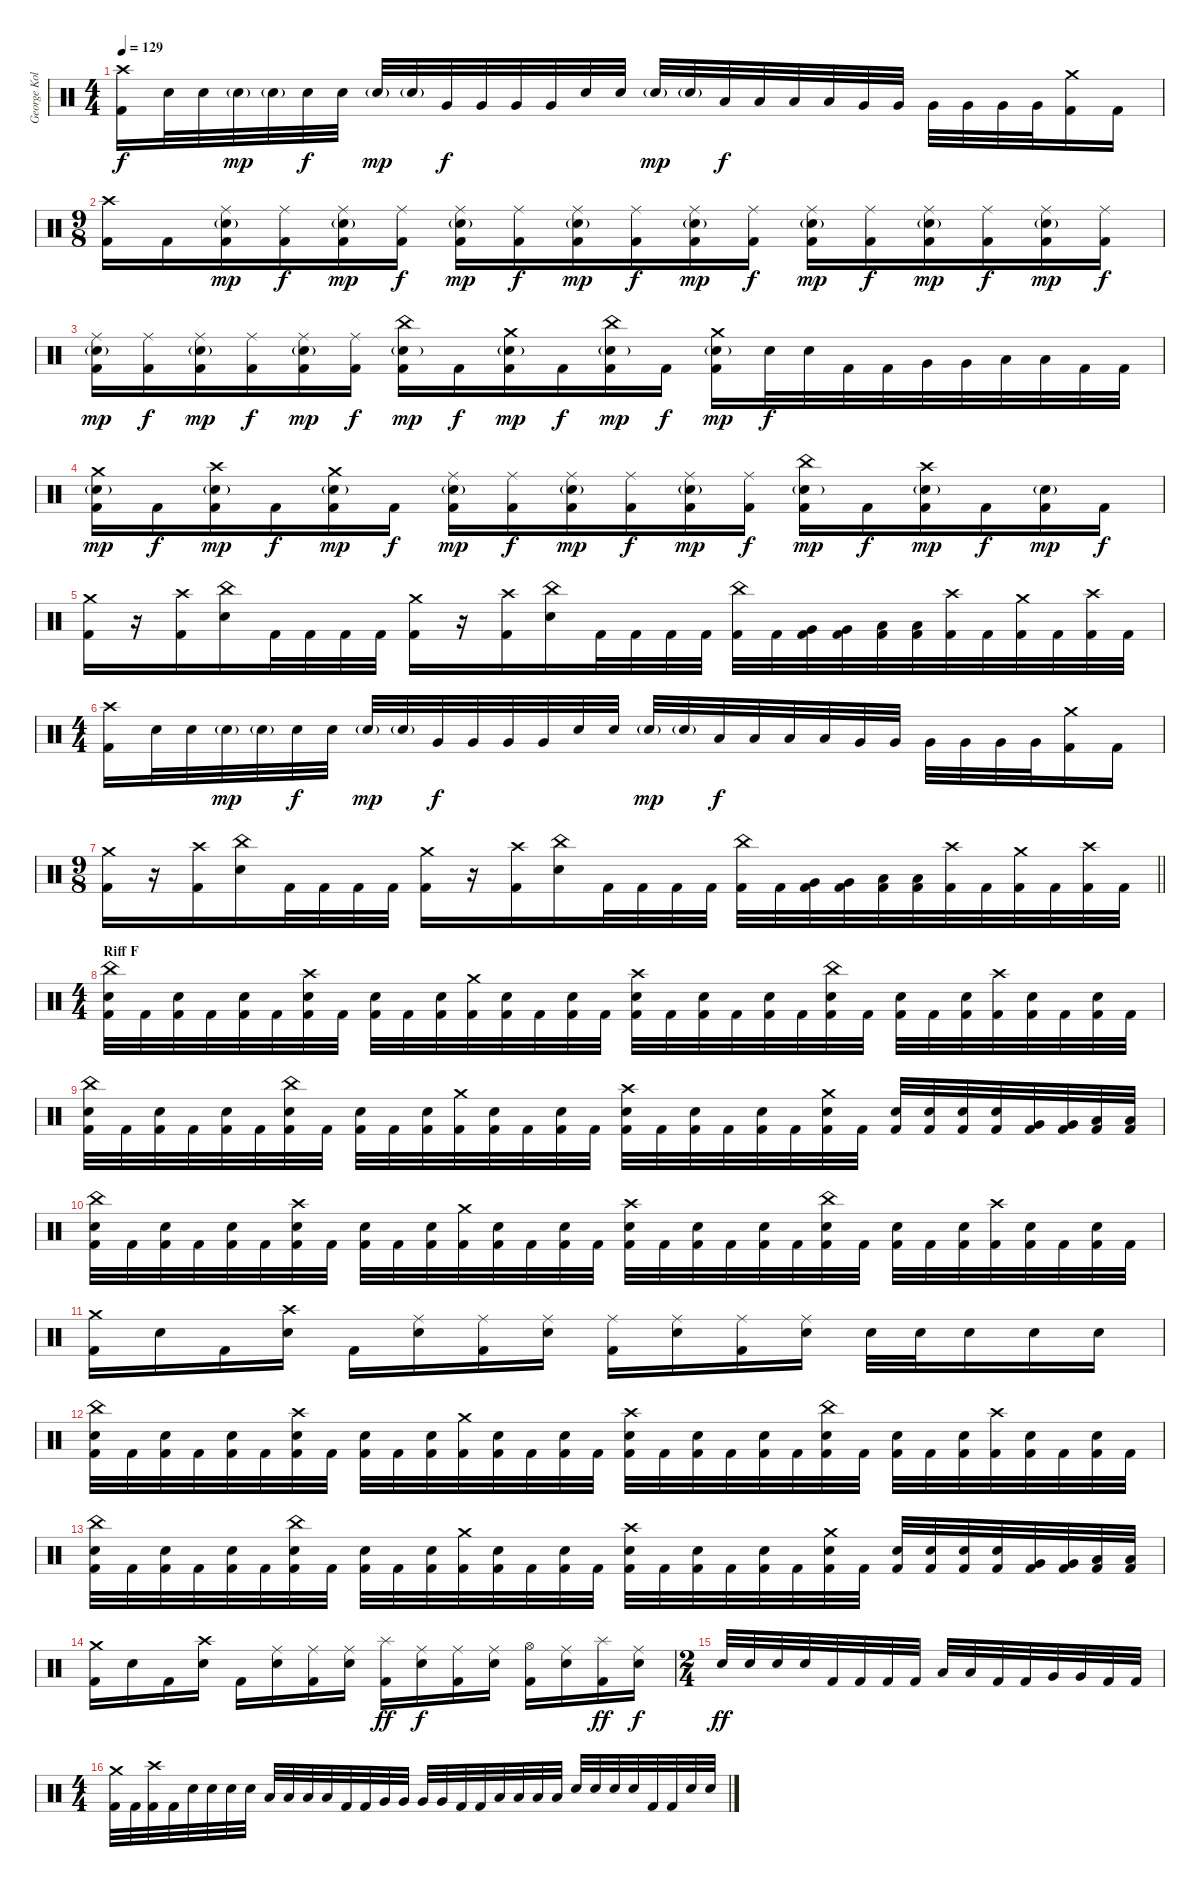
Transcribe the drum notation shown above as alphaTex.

\track ("George Kollias" "George Kol") {instrument percussion}
\staff {score}
\articulation defaults
\ts (4 4)
\tempo 129
\clef neutral
\ks c
("Crash high (hit)" "Kick (hit) 2").16{dy f} "Electric Snare (hit)".32 "Electric Snare (hit)".32 "Electric Snare (hit)"{g}.32{dy mp} "Electric Snare (hit)"{g}.32 "Electric Snare (hit)".32{dy f} "Electric Snare (hit)".32 "Electric Snare (hit)"{g}.32{dy mp} "Electric Snare (hit)"{g}.32 "Very Low Tom (hit)".32{dy f} "Very Low Tom (hit)".32 "Very Low Tom (hit)".32 "Very Low Tom (hit)".32 "Electric Snare (hit)".32 "Electric Snare (hit)".32 "Electric Snare (hit)"{g}.32{dy mp} "Electric Snare (hit)"{g}.32 "Low Tom (hit)".32{dy f} "Low Tom (hit)".32 "Low Tom (hit)".32 "Low Tom (hit)".32 "Very Low Tom (hit)".32 "Very Low Tom (hit)".32 "Very Low Tom (hit)".32 "Very Low Tom (hit)".32 "Very Low Tom (hit)".32 "Very Low Tom (hit)".32 ("Crash medium (hit)" "Kick (hit) 2").16 "Kick (hit) 2".16 |
\ts (9 8)
("Crash high (hit)" "Kick (hit) 2").16 "Kick (hit) 2".16 ("Ride (middle)" "Electric Snare (hit)"{g} "Kick (hit) 2").16{dy mp} ("Ride (middle)" "Kick (hit) 2").16{dy f} ("Ride (middle)" "Electric Snare (hit)"{g} "Kick (hit) 2").16{dy mp} ("Ride (middle)" "Kick (hit) 2").16{dy f} ("Ride (middle)" "Electric Snare (hit)"{g} "Kick (hit) 2").16{dy mp} ("Ride (middle)" "Kick (hit) 2").16{dy f} ("Ride (middle)" "Electric Snare (hit)"{g} "Kick (hit) 2").16{dy mp} ("Ride (middle)" "Kick (hit) 2").16{dy f} ("Ride (middle)" "Electric Snare (hit)"{g} "Kick (hit) 2").16{dy mp} ("Ride (middle)" "Kick (hit) 2").16{dy f} ("Ride (middle)" "Electric Snare (hit)"{g} "Kick (hit) 2").16{dy mp} ("Ride (middle)" "Kick (hit) 2").16{dy f} ("Ride (middle)" "Electric Snare (hit)"{g} "Kick (hit) 2").16{dy mp} ("Ride (middle)" "Kick (hit) 2").16{dy f} ("Ride (middle)" "Electric Snare (hit)"{g} "Kick (hit) 2").16{dy mp} ("Ride (middle)" "Kick (hit) 2").16{dy f} |
("Ride (middle)" "Electric Snare (hit)"{g} "Kick (hit) 2").16{dy mp} ("Ride (middle)" "Kick (hit) 2").16{dy f} ("Ride (middle)" "Electric Snare (hit)"{g} "Kick (hit) 2").16{dy mp} ("Ride (middle)" "Kick (hit) 2").16{dy f} ("Ride (middle)" "Electric Snare (hit)"{g} "Kick (hit) 2").16{dy mp} ("Ride (middle)" "Kick (hit) 2").16{dy f} ("China (hit)" "Electric Snare (hit)"{g} "Kick (hit) 2").16{dy mp} "Kick (hit) 2".16{dy f} ("Crash medium (hit)" "Electric Snare (hit)"{g} "Kick (hit) 2").16{dy mp} "Kick (hit) 2".16{dy f} ("China (hit)" "Electric Snare (hit)"{g} "Kick (hit) 2").16{dy mp} "Kick (hit) 2".16{dy f} ("Crash medium (hit)" "Electric Snare (hit)"{g} "Kick (hit) 2").16{dy mp} "Electric Snare (hit)".32{dy f} "Electric Snare (hit)".32 "Kick (hit) 2".32 "Kick (hit) 2".32 "Very Low Tom (hit)".32 "Very Low Tom (hit)".32 "Low Floor Tom (hit)".32 "Low Floor Tom (hit)".32 "Kick (hit) 2".32 "Kick (hit) 2".32 |
("Crash medium (hit)" "Electric Snare (hit)"{g} "Kick (hit) 2").16{dy mp} "Kick (hit) 2".16{dy f} ("Crash high (hit)" "Electric Snare (hit)"{g} "Kick (hit) 2").16{dy mp} "Kick (hit) 2".16{dy f} ("Crash medium (hit)" "Electric Snare (hit)"{g} "Kick (hit) 2").16{dy mp} "Kick (hit) 2".16{dy f} ("Ride (middle)" "Electric Snare (hit)"{g} "Kick (hit) 2").16{dy mp} ("Ride (middle)" "Kick (hit) 2").16{dy f} ("Ride (middle)" "Electric Snare (hit)"{g} "Kick (hit) 2").16{dy mp} ("Ride (middle)" "Kick (hit) 2").16{dy f} ("Ride (middle)" "Electric Snare (hit)"{g} "Kick (hit) 2").16{dy mp} ("Ride (middle)" "Kick (hit) 2").16{dy f} ("China (hit)" "Electric Snare (hit)"{g} "Kick (hit) 2").16{dy mp} "Kick (hit) 2".16{dy f} ("Crash high (hit)" "Electric Snare (hit)"{g} "Kick (hit) 2").16{dy mp} "Kick (hit) 2".16{dy f} ("Electric Snare (hit)"{g} "Kick (hit) 2").16{dy mp} "Kick (hit) 2".16{dy f} |
("Crash medium (hit)" "Kick (hit) 2").16 r.16 ("Crash high (hit)" "Kick (hit) 2").16 ("China (hit)" "Electric Snare (hit)").16 "Kick (hit) 2".32 "Kick (hit) 2".32 "Kick (hit) 2".32 "Kick (hit) 2".32 ("Crash medium (hit)" "Kick (hit) 2").16 r.16 ("Crash high (hit)" "Kick (hit) 2").16 ("China (hit)" "Electric Snare (hit)").16 "Kick (hit) 2".32 "Kick (hit) 2".32 "Kick (hit) 2".32 "Kick (hit) 2".32 ("China (hit)" "Kick (hit) 2").32 "Kick (hit) 2".32 ("Very Low Tom (hit)" "Kick (hit) 2").32 ("Very Low Tom (hit)" "Kick (hit) 2").32 ("Low Floor Tom (hit)" "Kick (hit) 2").32 ("Low Floor Tom (hit)" "Kick (hit) 2").32 ("Crash high (hit)" "Kick (hit) 2").32 "Kick (hit) 2".32 ("Crash medium (hit)" "Kick (hit) 2").32 "Kick (hit) 2".32 ("Crash high (hit)" "Kick (hit) 2").32 "Kick (hit) 2".32 |
\ts (4 4)
("Crash high (hit)" "Kick (hit) 2").16 "Electric Snare (hit)".32 "Electric Snare (hit)".32 "Electric Snare (hit)"{g}.32{dy mp} "Electric Snare (hit)"{g}.32 "Electric Snare (hit)".32{dy f} "Electric Snare (hit)".32 "Electric Snare (hit)"{g}.32{dy mp} "Electric Snare (hit)"{g}.32 "Very Low Tom (hit)".32{dy f} "Very Low Tom (hit)".32 "Very Low Tom (hit)".32 "Very Low Tom (hit)".32 "Electric Snare (hit)".32 "Electric Snare (hit)".32 "Electric Snare (hit)"{g}.32{dy mp} "Electric Snare (hit)"{g}.32 "Low Tom (hit)".32{dy f} "Low Tom (hit)".32 "Low Tom (hit)".32 "Low Tom (hit)".32 "Very Low Tom (hit)".32 "Very Low Tom (hit)".32 "Very Low Tom (hit)".32 "Very Low Tom (hit)".32 "Very Low Tom (hit)".32 "Very Low Tom (hit)".32 ("Crash medium (hit)" "Kick (hit) 2").16 "Kick (hit) 2".16 |
\ts (9 8)
\barLineRight lightlight
("Crash medium (hit)" "Kick (hit) 2").16 r.16 ("Crash high (hit)" "Kick (hit) 2").16 ("China (hit)" "Electric Snare (hit)").16 "Kick (hit) 2".32 "Kick (hit) 2".32 "Kick (hit) 2".32 "Kick (hit) 2".32 ("Crash medium (hit)" "Kick (hit) 2").16 r.16 ("Crash high (hit)" "Kick (hit) 2").16 ("China (hit)" "Electric Snare (hit)").16 "Kick (hit) 2".32 "Kick (hit) 2".32 "Kick (hit) 2".32 "Kick (hit) 2".32 ("China (hit)" "Kick (hit) 2").32 "Kick (hit) 2".32 ("Very Low Tom (hit)" "Kick (hit) 2").32 ("Very Low Tom (hit)" "Kick (hit) 2").32 ("Low Floor Tom (hit)" "Kick (hit) 2").32 ("Low Floor Tom (hit)" "Kick (hit) 2").32 ("Crash high (hit)" "Kick (hit) 2").32 "Kick (hit) 2".32 ("Crash medium (hit)" "Kick (hit) 2").32 "Kick (hit) 2".32 ("Crash high (hit)" "Kick (hit) 2").32 "Kick (hit) 2".32 |
\ts (4 4)
\section ("" "Riff F")
("China (hit)" "Electric Snare (hit)" "Kick (hit) 2").32 "Kick (hit) 2".32 ("Electric Snare (hit)" "Kick (hit) 2").32 "Kick (hit) 2".32 ("Electric Snare (hit)" "Kick (hit) 2").32 "Kick (hit) 2".32 ("Crash high (hit)" "Electric Snare (hit)" "Kick (hit) 2").32 "Kick (hit) 2".32 ("Electric Snare (hit)" "Kick (hit) 2").32 "Kick (hit) 2".32 ("Electric Snare (hit)" "Kick (hit) 2").32 ("Crash medium (hit)" "Kick (hit) 2").32 ("Electric Snare (hit)" "Kick (hit) 2").32 "Kick (hit) 2".32 ("Electric Snare (hit)" "Kick (hit) 2").32 "Kick (hit) 2".32 ("Crash high (hit)" "Electric Snare (hit)" "Kick (hit) 2").32 "Kick (hit) 2".32 ("Electric Snare (hit)" "Kick (hit) 2").32 "Kick (hit) 2".32 ("Electric Snare (hit)" "Kick (hit) 2").32 "Kick (hit) 2".32 ("China (hit)" "Electric Snare (hit)" "Kick (hit) 2").32 "Kick (hit) 2".32 ("Electric Snare (hit)" "Kick (hit) 2").32 "Kick (hit) 2".32 ("Electric Snare (hit)" "Kick (hit) 2").32 ("Crash high (hit)" "Kick (hit) 2").32 ("Electric Snare (hit)" "Kick (hit) 2").32 "Kick (hit) 2".32 ("Electric Snare (hit)" "Kick (hit) 2").32 "Kick (hit) 2".32 |
("China (hit)" "Electric Snare (hit)" "Kick (hit) 2").32 "Kick (hit) 2".32 ("Electric Snare (hit)" "Kick (hit) 2").32 "Kick (hit) 2".32 ("Electric Snare (hit)" "Kick (hit) 2").32 "Kick (hit) 2".32 ("China (hit)" "Electric Snare (hit)" "Kick (hit) 2").32 "Kick (hit) 2".32 ("Electric Snare (hit)" "Kick (hit) 2").32 "Kick (hit) 2".32 ("Electric Snare (hit)" "Kick (hit) 2").32 ("Crash medium (hit)" "Kick (hit) 2").32 ("Electric Snare (hit)" "Kick (hit) 2").32 "Kick (hit) 2".32 ("Electric Snare (hit)" "Kick (hit) 2").32 "Kick (hit) 2".32 ("Crash high (hit)" "Electric Snare (hit)" "Kick (hit) 2").32 "Kick (hit) 2".32 ("Electric Snare (hit)" "Kick (hit) 2").32 "Kick (hit) 2".32 ("Electric Snare (hit)" "Kick (hit) 2").32 "Kick (hit) 2".32 ("Crash medium (hit)" "Electric Snare (hit)" "Kick (hit) 2").32 "Kick (hit) 2".32 ("Electric Snare (hit)" "Kick (hit) 2").32 ("Electric Snare (hit)" "Kick (hit) 2").32 ("Electric Snare (hit)" "Kick (hit) 2").32 ("Electric Snare (hit)" "Kick (hit) 2").32 ("Very Low Tom (hit)" "Kick (hit) 2").32 ("Very Low Tom (hit)" "Kick (hit) 2").32 ("Low Floor Tom (hit)" "Kick (hit) 2").32 ("Low Floor Tom (hit)" "Kick (hit) 2").32 |
("China (hit)" "Electric Snare (hit)" "Kick (hit) 2").32 "Kick (hit) 2".32 ("Electric Snare (hit)" "Kick (hit) 2").32 "Kick (hit) 2".32 ("Electric Snare (hit)" "Kick (hit) 2").32 "Kick (hit) 2".32 ("Crash high (hit)" "Electric Snare (hit)" "Kick (hit) 2").32 "Kick (hit) 2".32 ("Electric Snare (hit)" "Kick (hit) 2").32 "Kick (hit) 2".32 ("Electric Snare (hit)" "Kick (hit) 2").32 ("Crash medium (hit)" "Kick (hit) 2").32 ("Electric Snare (hit)" "Kick (hit) 2").32 "Kick (hit) 2".32 ("Electric Snare (hit)" "Kick (hit) 2").32 "Kick (hit) 2".32 ("Crash high (hit)" "Electric Snare (hit)" "Kick (hit) 2").32 "Kick (hit) 2".32 ("Electric Snare (hit)" "Kick (hit) 2").32 "Kick (hit) 2".32 ("Electric Snare (hit)" "Kick (hit) 2").32 "Kick (hit) 2".32 ("China (hit)" "Electric Snare (hit)" "Kick (hit) 2").32 "Kick (hit) 2".32 ("Electric Snare (hit)" "Kick (hit) 2").32 "Kick (hit) 2".32 ("Electric Snare (hit)" "Kick (hit) 2").32 ("Crash high (hit)" "Kick (hit) 2").32 ("Electric Snare (hit)" "Kick (hit) 2").32 "Kick (hit) 2".32 ("Electric Snare (hit)" "Kick (hit) 2").32 "Kick (hit) 2".32 |
("Crash medium (hit)" "Kick (hit) 2").16 "Electric Snare (hit)".16 "Kick (hit) 2".16 ("Crash high (hit)" "Electric Snare (hit)").16 "Kick (hit) 2".16 ("Ride (middle)" "Electric Snare (hit)").16 ("Ride (middle)" "Kick (hit) 2").16 ("Ride (middle)" "Electric Snare (hit)").16 ("Ride (middle)" "Kick (hit) 2").16 ("Ride (middle)" "Electric Snare (hit)").16 ("Ride (middle)" "Kick (hit) 2").16 ("Ride (middle)" "Electric Snare (hit)").16 "Electric Snare (hit)".32 "Electric Snare (hit)".32 "Electric Snare (hit)".16 "Electric Snare (hit)".16 "Electric Snare (hit)".16 |
("China (hit)" "Electric Snare (hit)" "Kick (hit) 2").32 "Kick (hit) 2".32 ("Electric Snare (hit)" "Kick (hit) 2").32 "Kick (hit) 2".32 ("Electric Snare (hit)" "Kick (hit) 2").32 "Kick (hit) 2".32 ("Crash high (hit)" "Electric Snare (hit)" "Kick (hit) 2").32 "Kick (hit) 2".32 ("Electric Snare (hit)" "Kick (hit) 2").32 "Kick (hit) 2".32 ("Electric Snare (hit)" "Kick (hit) 2").32 ("Crash medium (hit)" "Kick (hit) 2").32 ("Electric Snare (hit)" "Kick (hit) 2").32 "Kick (hit) 2".32 ("Electric Snare (hit)" "Kick (hit) 2").32 "Kick (hit) 2".32 ("Crash high (hit)" "Electric Snare (hit)" "Kick (hit) 2").32 "Kick (hit) 2".32 ("Electric Snare (hit)" "Kick (hit) 2").32 "Kick (hit) 2".32 ("Electric Snare (hit)" "Kick (hit) 2").32 "Kick (hit) 2".32 ("China (hit)" "Electric Snare (hit)" "Kick (hit) 2").32 "Kick (hit) 2".32 ("Electric Snare (hit)" "Kick (hit) 2").32 "Kick (hit) 2".32 ("Electric Snare (hit)" "Kick (hit) 2").32 ("Crash high (hit)" "Kick (hit) 2").32 ("Electric Snare (hit)" "Kick (hit) 2").32 "Kick (hit) 2".32 ("Electric Snare (hit)" "Kick (hit) 2").32 "Kick (hit) 2".32 |
("China (hit)" "Electric Snare (hit)" "Kick (hit) 2").32 "Kick (hit) 2".32 ("Electric Snare (hit)" "Kick (hit) 2").32 "Kick (hit) 2".32 ("Electric Snare (hit)" "Kick (hit) 2").32 "Kick (hit) 2".32 ("China (hit)" "Electric Snare (hit)" "Kick (hit) 2").32 "Kick (hit) 2".32 ("Electric Snare (hit)" "Kick (hit) 2").32 "Kick (hit) 2".32 ("Electric Snare (hit)" "Kick (hit) 2").32 ("Crash medium (hit)" "Kick (hit) 2").32 ("Electric Snare (hit)" "Kick (hit) 2").32 "Kick (hit) 2".32 ("Electric Snare (hit)" "Kick (hit) 2").32 "Kick (hit) 2".32 ("Crash high (hit)" "Electric Snare (hit)" "Kick (hit) 2").32 "Kick (hit) 2".32 ("Electric Snare (hit)" "Kick (hit) 2").32 "Kick (hit) 2".32 ("Electric Snare (hit)" "Kick (hit) 2").32 "Kick (hit) 2".32 ("Crash medium (hit)" "Electric Snare (hit)" "Kick (hit) 2").32 "Kick (hit) 2".32 ("Electric Snare (hit)" "Kick (hit) 2").32 ("Electric Snare (hit)" "Kick (hit) 2").32 ("Electric Snare (hit)" "Kick (hit) 2").32 ("Electric Snare (hit)" "Kick (hit) 2").32 ("Very Low Tom (hit)" "Kick (hit) 2").32 ("Very Low Tom (hit)" "Kick (hit) 2").32 ("Low Floor Tom (hit)" "Kick (hit) 2").32 ("Low Floor Tom (hit)" "Kick (hit) 2").32 |
("Crash medium (hit)" "Kick (hit) 2").16 "Electric Snare (hit)".16 "Kick (hit) 2".16 ("Crash high (hit)" "Electric Snare (hit)").16 "Kick (hit) 2".16 ("Ride (middle)" "Electric Snare (hit)").16 ("Ride (middle)" "Kick (hit) 2").16 ("Ride (middle)" "Electric Snare (hit)").16 ("Splash (hit)" "Kick (hit) 2").16{dy ff} ("Ride (middle)" "Electric Snare (hit)").16{dy f} ("Ride (middle)" "Kick (hit) 2").16 ("Ride (middle)" "Electric Snare (hit)").16 ("Hi-Hat (open)" "Kick (hit) 2").16 ("Ride (middle)" "Electric Snare (hit)").16 ("Splash (hit)" "Kick (hit) 2").16{dy ff} ("Ride (middle)" "Electric Snare (hit)").16{dy f} |
\ts (2 4)
"Electric Snare (hit)".32{dy ff} "Electric Snare (hit)".32 "Electric Snare (hit)".32 "Electric Snare (hit)".32 "Kick (hit) 2".32 "Kick (hit) 2".32 "Kick (hit) 2".32 "Kick (hit) 2".32 "Low Tom (hit)".32 "Low Tom (hit)".32 "Kick (hit) 2".32 "Kick (hit) 2".32 "Very Low Tom (hit)".32 "Very Low Tom (hit)".32 "Kick (hit) 2".32 "Kick (hit) 2".32 |
\ts (4 4)
("Crash medium (hit)" "Kick (hit) 2").32 "Kick (hit) 2".32 ("Crash high (hit)" "Kick (hit) 2").32 "Kick (hit) 2".32 "Electric Snare (hit)".32 "Electric Snare (hit)".32 "Electric Snare (hit)".32 "Electric Snare (hit)".32 "Low Tom (hit)".32 "Low Tom (hit)".32 "Low Tom (hit)".32 "Low Tom (hit)".32 "Kick (hit) 2".32 "Kick (hit) 2".32 "Very Low Tom (hit)".32 "Very Low Tom (hit)".32 "Very Low Tom (hit)".32 "Very Low Tom (hit)".32 "Kick (hit) 2".32 "Kick (hit) 2".32 "Low Floor Tom (hit)".32 "Low Floor Tom (hit)".32 "Low Floor Tom (hit)".32 "Low Floor Tom (hit)".32 "Electric Snare (hit)".32 "Electric Snare (hit)".32 "Electric Snare (hit)".32 "Electric Snare (hit)".32 "Kick (hit) 2".32 "Kick (hit) 2".32 "Electric Snare (hit)".32 "Electric Snare (hit)".32
